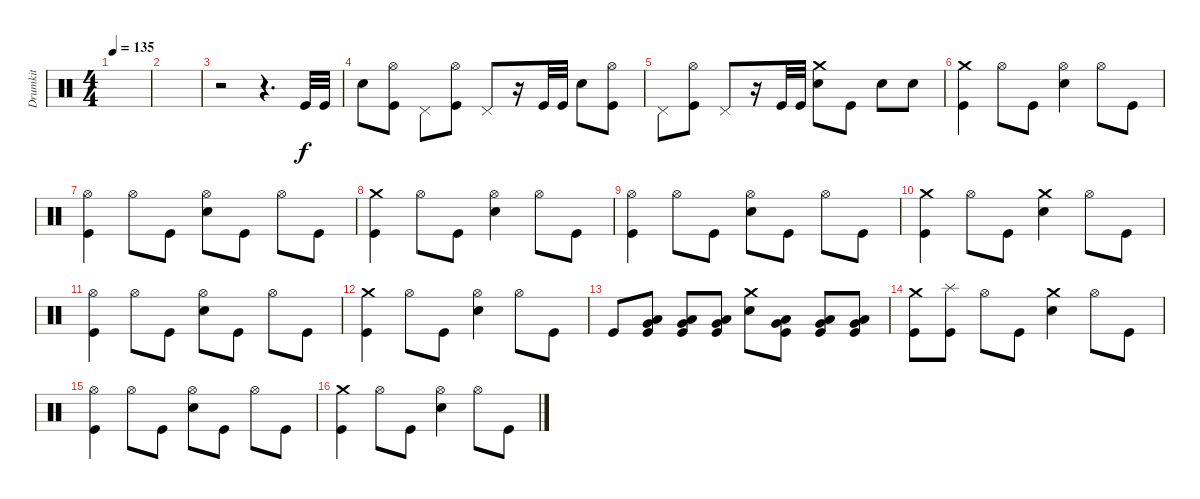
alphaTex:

\track ("Drumkit" "Drumkit") {instrument percussion}
\staff {score}
\articulation defaults
\ts (4 4)
\tempo 135
\clef neutral
\ks c
|
|
r.2 r.4{d} "Kick (hit)".32 "Kick (hit)".32 |
"Snare (hit) 2".8 ("Kick (hit)" "Hi-Hat (open)").8 "Pedal Hi-Hat (hit)".8 ("Kick (hit)" "Hi-Hat (open)").8 "Pedal Hi-Hat (hit)".8 r.16 "Kick (hit)".32 "Kick (hit)".32 "Snare (hit) 2".8 ("Kick (hit)" "Hi-Hat (open)").8 |
"Pedal Hi-Hat (hit)".8 ("Kick (hit)" "Hi-Hat (open)").8 "Pedal Hi-Hat (hit)".8 r.16 "Kick (hit)".32 "Kick (hit)".32 ("Snare (hit) 2" "Crash medium (hit)").8 "Kick (hit)".8 "Snare (hit) 2".8 "Snare (hit) 2".8 |
("Kick (hit)" "Crash medium (hit)").4 "Hi-Hat (open)".8 "Kick (hit)".8 ("Snare (hit) 2" "Hi-Hat (open)").4 "Hi-Hat (open)".8 "Kick (hit)".8 |
("Kick (hit)" "Hi-Hat (open)").4 "Hi-Hat (open)".8 "Kick (hit)".8 ("Snare (hit) 2" "Hi-Hat (open)").8 "Kick (hit)".8 "Hi-Hat (open)".8 "Kick (hit)".8 |
("Kick (hit)" "Crash medium (hit)").4 "Hi-Hat (open)".8 "Kick (hit)".8 ("Snare (hit) 2" "Hi-Hat (open)").4 "Hi-Hat (open)".8 "Kick (hit)".8 |
("Kick (hit)" "Hi-Hat (open)").4 "Hi-Hat (open)".8 "Kick (hit)".8 ("Snare (hit) 2" "Hi-Hat (open)").8 "Kick (hit)".8 "Hi-Hat (open)".8 "Kick (hit)".8 |
("Kick (hit)" "Crash medium (hit)").4 "Hi-Hat (open)".8 "Kick (hit)".8 ("Snare (hit) 2" "Crash medium (hit)").4 "Hi-Hat (open)".8 "Kick (hit)".8 |
("Kick (hit)" "Hi-Hat (open)").4 "Hi-Hat (open)".8 "Kick (hit)".8 ("Snare (hit) 2" "Hi-Hat (open)").8 "Kick (hit)".8 "Hi-Hat (open)".8 "Kick (hit)".8 |
("Kick (hit)" "Crash medium (hit)").4 "Hi-Hat (open)".8 "Kick (hit)".8 ("Snare (hit) 2" "Hi-Hat (open)").4 "Hi-Hat (open)".8 "Kick (hit)".8 |
"Kick (hit)".8 ("Very Low Tom (hit)" "Low Floor Tom (hit)" "Kick (hit)").8 ("Kick (hit)" "Low Floor Tom (hit)" "Very Low Tom (hit)").8 ("Kick (hit)" "Low Floor Tom (hit)" "Very Low Tom (hit)").8 ("Snare (hit) 2" "Crash medium (hit)").8 ("Very Low Tom (hit)" "Low Floor Tom (hit)" "Kick (hit)").8 ("Kick (hit)" "Low Floor Tom (hit)" "Very Low Tom (hit)").8 ("Kick (hit)" "Low Floor Tom (hit)" "Very Low Tom (hit)").8 |
("Kick (hit)" "Crash medium (hit)").8 ("Kick (hit)" "Splash (hit)").8 "Hi-Hat (open)".8 "Kick (hit)".8 ("Snare (hit) 2" "Crash medium (hit)").4 "Hi-Hat (open)".8 "Kick (hit)".8 |
("Kick (hit)" "Hi-Hat (open)").4 "Hi-Hat (open)".8 "Kick (hit)".8 ("Snare (hit) 2" "Hi-Hat (open)").8 "Kick (hit)".8 "Hi-Hat (open)".8 "Kick (hit)".8 |
("Kick (hit)" "Crash medium (hit)").4 "Hi-Hat (open)".8 "Kick (hit)".8 ("Snare (hit) 2" "Hi-Hat (open)").4 "Hi-Hat (open)".8 "Kick (hit)".8
